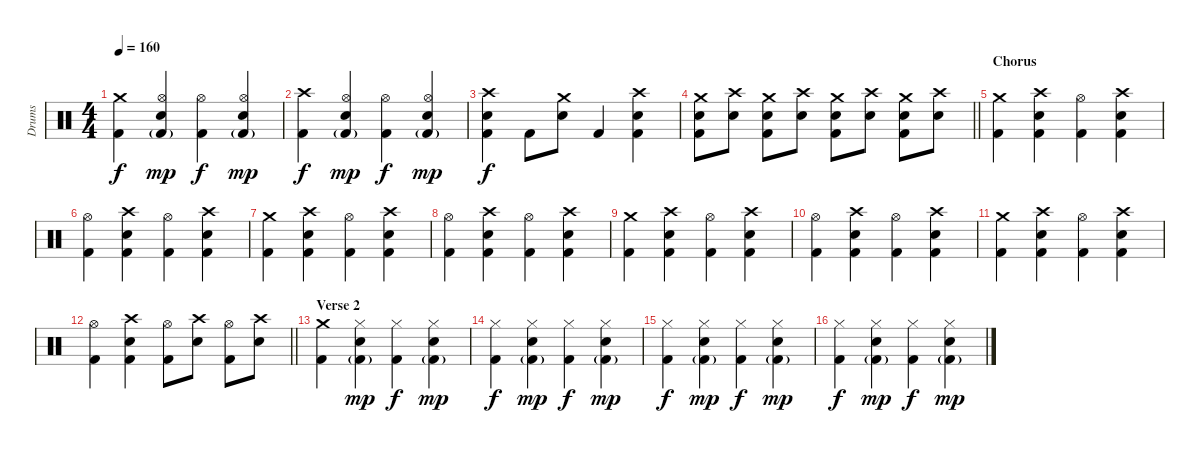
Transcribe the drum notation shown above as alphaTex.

\track ("Drums" "Drums") {instrument percussion}
\staff {score}
\articulation defaults
\ts (4 4)
\tempo 160
\clef neutral
\ks c
("Crash medium (hit)" "Kick (hit) 2").4{dy f} ("Hi-Hat (open)" "Electric Snare (hit)" "Kick (hit) 2"{g}).4{dy mp} ("Hi-Hat (open)" "Kick (hit) 2").4{dy f} ("Hi-Hat (open)" "Electric Snare (hit)" "Kick (hit) 2"{g}).4{dy mp} |
("Crash high (hit)" "Kick (hit) 2").4{dy f} ("Hi-Hat (open)" "Electric Snare (hit)" "Kick (hit) 2"{g}).4{dy mp} ("Hi-Hat (open)" "Kick (hit) 2").4{dy f} ("Hi-Hat (open)" "Electric Snare (hit)" "Kick (hit) 2"{g}).4{dy mp} |
("Crash high (hit)" "Electric Snare (hit)" "Kick (hit) 2").4{dy f} "Kick (hit) 2".8 ("Crash medium (hit)" "Electric Snare (hit)").8 "Kick (hit) 2".4 ("Crash high (hit)" "Electric Snare (hit)" "Kick (hit) 2").4 |
\barLineRight lightlight
("Crash medium (hit)" "Electric Snare (hit)" "Kick (hit) 2").8 ("Crash high (hit)" "Electric Snare (hit)").8 ("Crash medium (hit)" "Electric Snare (hit)" "Kick (hit) 2").8 ("Crash high (hit)" "Electric Snare (hit)").8 ("Crash medium (hit)" "Electric Snare (hit)" "Kick (hit) 2").8 ("Crash high (hit)" "Electric Snare (hit)").8 ("Crash medium (hit)" "Electric Snare (hit)" "Kick (hit) 2").8 ("Crash high (hit)" "Electric Snare (hit)").8 |
\section ("" "Chorus")
("Crash medium (hit)" "Kick (hit) 2").4 ("Crash high (hit)" "Electric Snare (hit)" "Kick (hit) 2").4 ("Hi-Hat (open)" "Kick (hit) 2").4 ("Crash high (hit)" "Electric Snare (hit)" "Kick (hit) 2").4 |
("Hi-Hat (open)" "Kick (hit) 2").4 ("Crash high (hit)" "Electric Snare (hit)" "Kick (hit) 2").4 ("Hi-Hat (open)" "Kick (hit) 2").4 ("Crash high (hit)" "Electric Snare (hit)" "Kick (hit) 2").4 |
("Crash medium (hit)" "Kick (hit) 2").4 ("Crash high (hit)" "Electric Snare (hit)" "Kick (hit) 2").4 ("Hi-Hat (open)" "Kick (hit) 2").4 ("Crash high (hit)" "Electric Snare (hit)" "Kick (hit) 2").4 |
("Hi-Hat (open)" "Kick (hit) 2").4 ("Crash high (hit)" "Electric Snare (hit)" "Kick (hit) 2").4 ("Hi-Hat (open)" "Kick (hit) 2").4 ("Crash high (hit)" "Electric Snare (hit)" "Kick (hit) 2").4 |
("Crash medium (hit)" "Kick (hit) 2").4 ("Crash high (hit)" "Electric Snare (hit)" "Kick (hit) 2").4 ("Hi-Hat (open)" "Kick (hit) 2").4 ("Crash high (hit)" "Electric Snare (hit)" "Kick (hit) 2").4 |
("Hi-Hat (open)" "Kick (hit) 2").4 ("Crash high (hit)" "Electric Snare (hit)" "Kick (hit) 2").4 ("Hi-Hat (open)" "Kick (hit) 2").4 ("Crash high (hit)" "Electric Snare (hit)" "Kick (hit) 2").4 |
("Crash medium (hit)" "Kick (hit) 2").4 ("Crash high (hit)" "Electric Snare (hit)" "Kick (hit) 2").4 ("Hi-Hat (open)" "Kick (hit) 2").4 ("Crash high (hit)" "Electric Snare (hit)" "Kick (hit) 2").4 |
\barLineRight lightlight
("Hi-Hat (open)" "Kick (hit) 2").4 ("Crash high (hit)" "Electric Snare (hit)" "Kick (hit) 2").4 ("Hi-Hat (open)" "Kick (hit) 2").8 ("Crash high (hit)" "Electric Snare (hit)").8 ("Hi-Hat (open)" "Kick (hit) 2").8 ("Crash high (hit)" "Electric Snare (hit)").8 |
\section ("" "Verse 2")
("Crash medium (hit)" "Kick (hit) 2").4 ("Hi-Hat (closed)" "Electric Snare (hit)" "Kick (hit) 2"{g}).4{dy mp} ("Hi-Hat (closed)" "Kick (hit) 2").4{dy f} ("Hi-Hat (closed)" "Electric Snare (hit)" "Kick (hit) 2"{g}).4{dy mp} |
("Hi-Hat (closed)" "Kick (hit) 2").4{dy f} ("Hi-Hat (closed)" "Electric Snare (hit)" "Kick (hit) 2"{g}).4{dy mp} ("Hi-Hat (closed)" "Kick (hit) 2").4{dy f} ("Hi-Hat (closed)" "Electric Snare (hit)" "Kick (hit) 2"{g}).4{dy mp} |
("Hi-Hat (closed)" "Kick (hit) 2").4{dy f} ("Hi-Hat (closed)" "Electric Snare (hit)" "Kick (hit) 2"{g}).4{dy mp} ("Hi-Hat (closed)" "Kick (hit) 2").4{dy f} ("Hi-Hat (closed)" "Electric Snare (hit)" "Kick (hit) 2"{g}).4{dy mp} |
("Hi-Hat (closed)" "Kick (hit) 2").4{dy f} ("Hi-Hat (closed)" "Electric Snare (hit)" "Kick (hit) 2"{g}).4{dy mp} ("Hi-Hat (closed)" "Kick (hit) 2").4{dy f} ("Hi-Hat (closed)" "Electric Snare (hit)" "Kick (hit) 2"{g}).4{dy mp}
